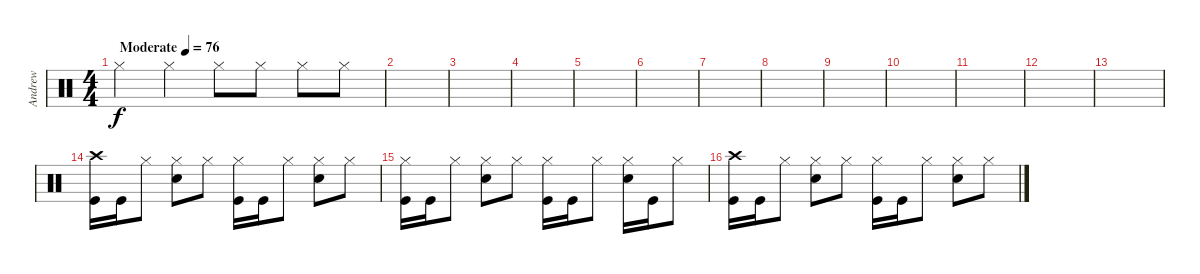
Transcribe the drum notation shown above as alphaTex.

\track ("Andrew" "Andrew") {instrument percussion}
\staff {score}
\articulation defaults
\ts (4 4)
\tempo (76 "Moderate")
\clef neutral
\ks c "Hi-Hat (closed)".4{dy f} "Hi-Hat (closed)".4 "Hi-Hat (closed)".8 "Hi-Hat (closed)".8 "Hi-Hat (closed)".8 "Hi-Hat (closed)".8
|
|
|
|
|
|
|
|
|
|
|
|
|
("Crash high (hit)" "Kick (hit)").16 "Kick (hit)".16 "Hi-Hat (closed)".8 ("Hi-Hat (closed)" "Snare (hit) 2").8 "Hi-Hat (closed)".8 ("Hi-Hat (closed)" "Kick (hit)").16 "Kick (hit)".16 "Hi-Hat (closed)".8 ("Hi-Hat (closed)" "Snare (hit) 2").8 "Hi-Hat (closed)".8 |
("Hi-Hat (closed)" "Kick (hit)").16 "Kick (hit)".16 "Hi-Hat (closed)".8 ("Hi-Hat (closed)" "Snare (hit) 2").8 "Hi-Hat (closed)".8 ("Hi-Hat (closed)" "Kick (hit)").16 "Kick (hit)".16 "Hi-Hat (closed)".8 ("Hi-Hat (closed)" "Snare (hit) 2").16 "Kick (hit)".16 "Hi-Hat (closed)".8 |
("Crash high (hit)" "Kick (hit)").16 "Kick (hit)".16 "Hi-Hat (closed)".8 ("Hi-Hat (closed)" "Snare (hit) 2").8 "Hi-Hat (closed)".8 ("Hi-Hat (closed)" "Kick (hit)").16 "Kick (hit)".16 "Hi-Hat (closed)".8 ("Hi-Hat (closed)" "Snare (hit) 2").8 "Hi-Hat (closed)".8
